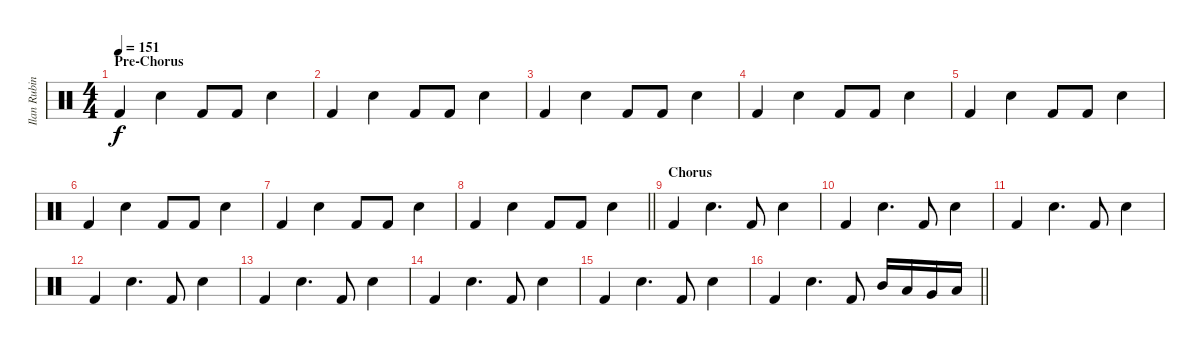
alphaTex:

\track ("Ilan Rubin [Drums]" "Ilan Rubin") {instrument percussion}
\staff {score}
\articulation defaults
\ts (4 4)
\section ("" "Pre-Chorus")
\tempo 151
\clef neutral
\ks c "Kick (hit) 2".4{dy f} "Snare (hit) 2".4 "Kick (hit) 2".8 "Kick (hit) 2".8 "Snare (hit) 2".4
|
"Kick (hit) 2".4 "Snare (hit) 2".4 "Kick (hit) 2".8 "Kick (hit) 2".8 "Snare (hit) 2".4 |
"Kick (hit) 2".4 "Snare (hit) 2".4 "Kick (hit) 2".8 "Kick (hit) 2".8 "Snare (hit) 2".4 |
"Kick (hit) 2".4 "Snare (hit) 2".4 "Kick (hit) 2".8 "Kick (hit) 2".8 "Snare (hit) 2".4 |
"Kick (hit) 2".4 "Snare (hit) 2".4 "Kick (hit) 2".8 "Kick (hit) 2".8 "Snare (hit) 2".4 |
"Kick (hit) 2".4 "Snare (hit) 2".4 "Kick (hit) 2".8 "Kick (hit) 2".8 "Snare (hit) 2".4 |
"Kick (hit) 2".4 "Snare (hit) 2".4 "Kick (hit) 2".8 "Kick (hit) 2".8 "Snare (hit) 2".4 |
\barLineRight lightlight "Kick (hit) 2".4 "Snare (hit) 2".4 "Kick (hit) 2".8 "Kick (hit) 2".8 "Snare (hit) 2".4
|
\section ("" "Chorus")
"Kick (hit) 2".4 "Snare (hit) 2".4{d} "Kick (hit) 2".8 "Snare (hit) 2".4 |
"Kick (hit) 2".4 "Snare (hit) 2".4{d} "Kick (hit) 2".8 "Snare (hit) 2".4 |
"Kick (hit) 2".4 "Snare (hit) 2".4{d} "Kick (hit) 2".8 "Snare (hit) 2".4 |
"Kick (hit) 2".4 "Snare (hit) 2".4{d} "Kick (hit) 2".8 "Snare (hit) 2".4 |
"Kick (hit) 2".4 "Snare (hit) 2".4{d} "Kick (hit) 2".8 "Snare (hit) 2".4 |
"Kick (hit) 2".4 "Snare (hit) 2".4{d} "Kick (hit) 2".8 "Snare (hit) 2".4 |
"Kick (hit) 2".4 "Snare (hit) 2".4{d} "Kick (hit) 2".8 "Snare (hit) 2".4 |
\barLineRight lightlight "Kick (hit) 2".4 "Snare (hit) 2".4{d} "Kick (hit) 2".8 "Mid Tom (hit)".16 "Low Tom (hit)".16 "Very Low Tom (hit)".16 "Low Floor Tom (hit)".16
